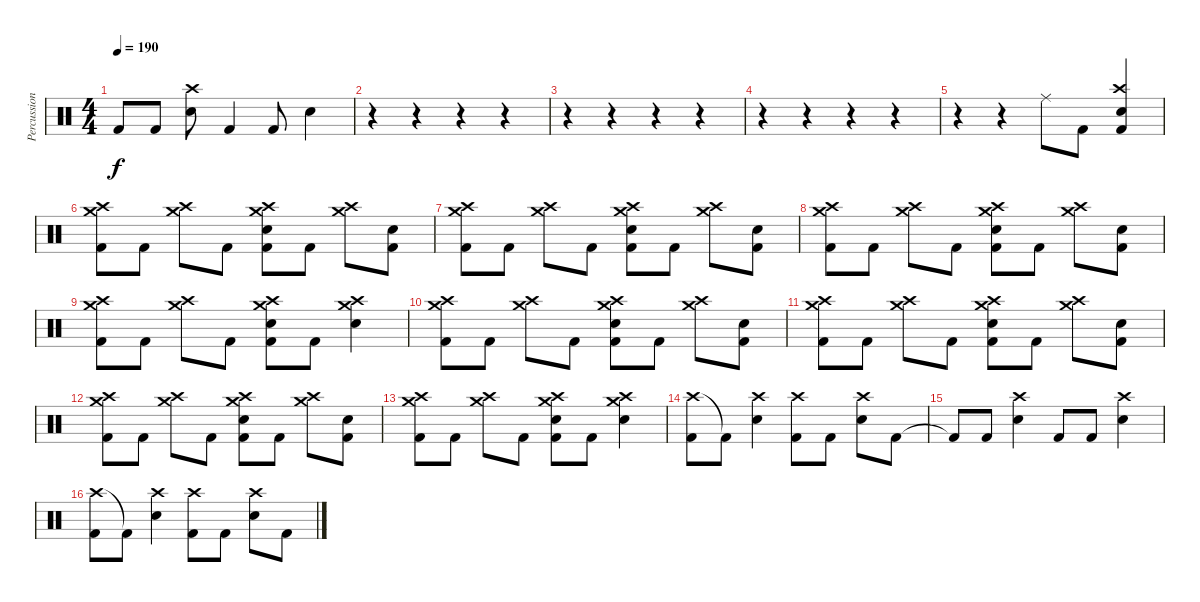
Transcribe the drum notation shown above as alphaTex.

\track ("Percussion" "Percussion") {instrument percussion}
\staff {score}
\articulation defaults
\ts (4 4)
\tempo 190
\clef neutral
\ks c "Kick (hit) 2"{t}.8{dy f} "Kick (hit) 2".8
("Crash high (hit)" "Electric Snare (hit)").8 "Kick (hit) 2".4 "Kick (hit) 2".8 "Electric Snare (hit)".4 |
r.4 r.4 r.4 r.4 |
r.4 r.4 r.4 r.4 |
r.4 r.4 r.4 r.4 |
r.4 r.4 "Ride (middle)".8 "Kick (hit) 2".8 ("Crash high (hit)" "Electric Snare (hit)" "Kick (hit) 2").4 |
("Crash medium (hit)" "Crash high (hit)" "Kick (hit) 2").8 "Kick (hit) 2".8 ("Crash medium (hit)" "Crash high (hit)").8 "Kick (hit) 2".8 ("Crash medium (hit)" "Crash high (hit)" "Electric Snare (hit)" "Kick (hit) 2").8 "Kick (hit) 2".8 ("Crash medium (hit)" "Crash high (hit)").8 ("Electric Snare (hit)" "Kick (hit) 2").8 |
("Crash medium (hit)" "Crash high (hit)" "Kick (hit) 2").8 "Kick (hit) 2".8 ("Crash medium (hit)" "Crash high (hit)").8 "Kick (hit) 2".8 ("Crash medium (hit)" "Crash high (hit)" "Electric Snare (hit)" "Kick (hit) 2").8 "Kick (hit) 2".8 ("Crash medium (hit)" "Crash high (hit)").8 ("Electric Snare (hit)" "Kick (hit) 2").8 |
("Crash medium (hit)" "Crash high (hit)" "Kick (hit) 2").8 "Kick (hit) 2".8 ("Crash medium (hit)" "Crash high (hit)").8 "Kick (hit) 2".8 ("Crash medium (hit)" "Crash high (hit)" "Electric Snare (hit)" "Kick (hit) 2").8 "Kick (hit) 2".8 ("Crash medium (hit)" "Crash high (hit)").8 ("Electric Snare (hit)" "Kick (hit) 2").8 |
("Crash medium (hit)" "Crash high (hit)" "Kick (hit) 2").8 "Kick (hit) 2".8 ("Crash medium (hit)" "Crash high (hit)").8 "Kick (hit) 2".8 ("Crash medium (hit)" "Crash high (hit)" "Electric Snare (hit)" "Kick (hit) 2").8 "Kick (hit) 2".8 ("Crash medium (hit)" "Crash high (hit)" "Electric Snare (hit)").4 |
("Crash medium (hit)" "Crash high (hit)" "Kick (hit) 2").8 "Kick (hit) 2".8 ("Crash medium (hit)" "Crash high (hit)").8 "Kick (hit) 2".8 ("Crash medium (hit)" "Crash high (hit)" "Electric Snare (hit)" "Kick (hit) 2").8 "Kick (hit) 2".8 ("Crash medium (hit)" "Crash high (hit)").8 ("Electric Snare (hit)" "Kick (hit) 2").8 |
("Crash medium (hit)" "Crash high (hit)" "Kick (hit) 2").8 "Kick (hit) 2".8 ("Crash medium (hit)" "Crash high (hit)").8 "Kick (hit) 2".8 ("Crash medium (hit)" "Crash high (hit)" "Electric Snare (hit)" "Kick (hit) 2").8 "Kick (hit) 2".8 ("Crash medium (hit)" "Crash high (hit)").8 ("Electric Snare (hit)" "Kick (hit) 2").8 |
("Crash medium (hit)" "Crash high (hit)" "Kick (hit) 2").8 "Kick (hit) 2".8 ("Crash medium (hit)" "Crash high (hit)").8 "Kick (hit) 2".8 ("Crash medium (hit)" "Crash high (hit)" "Electric Snare (hit)" "Kick (hit) 2").8 "Kick (hit) 2".8 ("Crash medium (hit)" "Crash high (hit)").8 ("Electric Snare (hit)" "Kick (hit) 2").8 |
("Crash medium (hit)" "Crash high (hit)" "Kick (hit) 2").8 "Kick (hit) 2".8 ("Crash medium (hit)" "Crash high (hit)").8 "Kick (hit) 2".8 ("Crash medium (hit)" "Crash high (hit)" "Electric Snare (hit)" "Kick (hit) 2").8 "Kick (hit) 2".8 ("Crash medium (hit)" "Crash high (hit)" "Electric Snare (hit)").4 |
("Crash high (hit)" "Kick (hit) 2").8 "Kick (hit) 2"{t}.8 ("Crash high (hit)" "Electric Snare (hit)").4 ("Crash high (hit)" "Kick (hit) 2").8 "Kick (hit) 2".8 ("Crash high (hit)" "Electric Snare (hit)").8 "Kick (hit) 2".8 |
"Kick (hit) 2"{t}.8 "Kick (hit) 2".8 ("Crash high (hit)" "Electric Snare (hit)").4 "Kick (hit) 2".8 "Kick (hit) 2".8 ("Crash high (hit)" "Electric Snare (hit)").4 |
("Crash high (hit)" "Kick (hit) 2").8 "Kick (hit) 2"{t}.8 ("Crash high (hit)" "Electric Snare (hit)").4 ("Crash high (hit)" "Kick (hit) 2").8 "Kick (hit) 2".8 ("Crash high (hit)" "Electric Snare (hit)").8 "Kick (hit) 2".8
